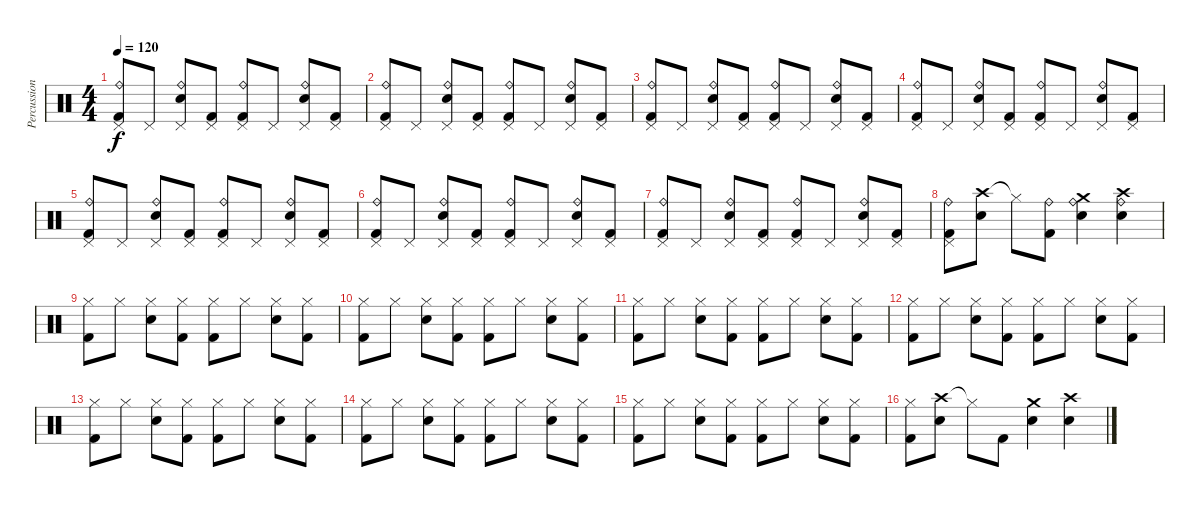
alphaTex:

\track ("Percussion" "Percussion") {instrument percussion}
\staff {score}
\articulation defaults
\ts (4 4)
\tempo 120
\clef neutral
\ks c
("Pedal Hi-Hat (hit)" "Ride (bell)" "Kick (hit) 2").8{dy f} "Pedal Hi-Hat (hit)".8 ("Pedal Hi-Hat (hit)" "Ride (bell)" "Electric Snare (hit)").8 ("Pedal Hi-Hat (hit)" "Kick (hit) 2").8 ("Pedal Hi-Hat (hit)" "Ride (bell)" "Kick (hit) 2").8 "Pedal Hi-Hat (hit)".8 ("Pedal Hi-Hat (hit)" "Ride (bell)" "Electric Snare (hit)").8 ("Pedal Hi-Hat (hit)" "Kick (hit) 2").8 |
("Pedal Hi-Hat (hit)" "Ride (bell)" "Kick (hit) 2").8 "Pedal Hi-Hat (hit)".8 ("Pedal Hi-Hat (hit)" "Ride (bell)" "Electric Snare (hit)").8 ("Pedal Hi-Hat (hit)" "Kick (hit) 2").8 ("Pedal Hi-Hat (hit)" "Ride (bell)" "Kick (hit) 2").8 "Pedal Hi-Hat (hit)".8 ("Pedal Hi-Hat (hit)" "Ride (bell)" "Electric Snare (hit)").8 ("Pedal Hi-Hat (hit)" "Kick (hit) 2").8 |
("Pedal Hi-Hat (hit)" "Ride (bell)" "Kick (hit) 2").8 "Pedal Hi-Hat (hit)".8 ("Pedal Hi-Hat (hit)" "Ride (bell)" "Electric Snare (hit)").8 ("Pedal Hi-Hat (hit)" "Kick (hit) 2").8 ("Pedal Hi-Hat (hit)" "Ride (bell)" "Kick (hit) 2").8 "Pedal Hi-Hat (hit)".8 ("Pedal Hi-Hat (hit)" "Ride (bell)" "Electric Snare (hit)").8 ("Pedal Hi-Hat (hit)" "Kick (hit) 2").8 |
("Pedal Hi-Hat (hit)" "Ride (bell)" "Kick (hit) 2").8 "Pedal Hi-Hat (hit)".8 ("Pedal Hi-Hat (hit)" "Ride (bell)" "Electric Snare (hit)").8 ("Pedal Hi-Hat (hit)" "Kick (hit) 2").8 ("Pedal Hi-Hat (hit)" "Ride (bell)" "Kick (hit) 2").8 "Pedal Hi-Hat (hit)".8 ("Pedal Hi-Hat (hit)" "Ride (bell)" "Electric Snare (hit)").8 ("Pedal Hi-Hat (hit)" "Kick (hit) 2").8 |
("Pedal Hi-Hat (hit)" "Ride (bell)" "Kick (hit) 2").8 "Pedal Hi-Hat (hit)".8 ("Pedal Hi-Hat (hit)" "Ride (bell)" "Electric Snare (hit)").8 ("Pedal Hi-Hat (hit)" "Kick (hit) 2").8 ("Pedal Hi-Hat (hit)" "Ride (bell)" "Kick (hit) 2").8 "Pedal Hi-Hat (hit)".8 ("Pedal Hi-Hat (hit)" "Ride (bell)" "Electric Snare (hit)").8 ("Pedal Hi-Hat (hit)" "Kick (hit) 2").8 |
("Pedal Hi-Hat (hit)" "Ride (bell)" "Kick (hit) 2").8 "Pedal Hi-Hat (hit)".8 ("Pedal Hi-Hat (hit)" "Ride (bell)" "Electric Snare (hit)").8 ("Pedal Hi-Hat (hit)" "Kick (hit) 2").8 ("Pedal Hi-Hat (hit)" "Ride (bell)" "Kick (hit) 2").8 "Pedal Hi-Hat (hit)".8 ("Pedal Hi-Hat (hit)" "Ride (bell)" "Electric Snare (hit)").8 ("Pedal Hi-Hat (hit)" "Kick (hit) 2").8 |
("Pedal Hi-Hat (hit)" "Ride (bell)" "Kick (hit) 2").8 "Pedal Hi-Hat (hit)".8 ("Pedal Hi-Hat (hit)" "Ride (bell)" "Electric Snare (hit)").8 ("Pedal Hi-Hat (hit)" "Kick (hit) 2").8 ("Pedal Hi-Hat (hit)" "Ride (bell)" "Kick (hit) 2").8 "Pedal Hi-Hat (hit)".8 ("Pedal Hi-Hat (hit)" "Ride (bell)" "Electric Snare (hit)").8 ("Pedal Hi-Hat (hit)" "Kick (hit) 2").8 |
("Pedal Hi-Hat (hit)" "Ride (bell)" "Kick (hit) 2").8 ("Crash high (hit)" "Electric Snare (hit)").8 "Hi-Hat (closed)"{t}.8 ("Ride (bell)" "Kick (hit) 2").8 ("Ride (bell)" "Crash medium (hit)" "Electric Snare (hit)").4 ("Ride (bell)" "Crash high (hit)" "Electric Snare (hit)").4 |
("Hi-Hat (closed)" "Kick (hit) 2").8 "Hi-Hat (closed)".8 ("Hi-Hat (closed)" "Electric Snare (hit)").8 ("Hi-Hat (closed)" "Kick (hit) 2").8 ("Hi-Hat (closed)" "Kick (hit) 2").8 "Hi-Hat (closed)".8 ("Hi-Hat (closed)" "Electric Snare (hit)").8 ("Hi-Hat (closed)" "Kick (hit) 2").8 |
("Hi-Hat (closed)" "Kick (hit) 2").8 "Hi-Hat (closed)".8 ("Hi-Hat (closed)" "Electric Snare (hit)").8 ("Hi-Hat (closed)" "Kick (hit) 2").8 ("Hi-Hat (closed)" "Kick (hit) 2").8 "Hi-Hat (closed)".8 ("Hi-Hat (closed)" "Electric Snare (hit)").8 ("Hi-Hat (closed)" "Kick (hit) 2").8 |
("Hi-Hat (closed)" "Kick (hit) 2").8 "Hi-Hat (closed)".8 ("Hi-Hat (closed)" "Electric Snare (hit)").8 ("Hi-Hat (closed)" "Kick (hit) 2").8 ("Hi-Hat (closed)" "Kick (hit) 2").8 "Hi-Hat (closed)".8 ("Hi-Hat (closed)" "Electric Snare (hit)").8 ("Hi-Hat (closed)" "Kick (hit) 2").8 |
("Hi-Hat (closed)" "Kick (hit) 2").8 "Hi-Hat (closed)".8 ("Hi-Hat (closed)" "Electric Snare (hit)").8 ("Hi-Hat (closed)" "Kick (hit) 2").8 ("Hi-Hat (closed)" "Kick (hit) 2").8 "Hi-Hat (closed)".8 ("Hi-Hat (closed)" "Electric Snare (hit)").8 ("Hi-Hat (closed)" "Kick (hit) 2").8 |
("Hi-Hat (closed)" "Kick (hit) 2").8 "Hi-Hat (closed)".8 ("Hi-Hat (closed)" "Electric Snare (hit)").8 ("Hi-Hat (closed)" "Kick (hit) 2").8 ("Hi-Hat (closed)" "Kick (hit) 2").8 "Hi-Hat (closed)".8 ("Hi-Hat (closed)" "Electric Snare (hit)").8 ("Hi-Hat (closed)" "Kick (hit) 2").8 |
("Hi-Hat (closed)" "Kick (hit) 2").8 "Hi-Hat (closed)".8 ("Hi-Hat (closed)" "Electric Snare (hit)").8 ("Hi-Hat (closed)" "Kick (hit) 2").8 ("Hi-Hat (closed)" "Kick (hit) 2").8 "Hi-Hat (closed)".8 ("Hi-Hat (closed)" "Electric Snare (hit)").8 ("Hi-Hat (closed)" "Kick (hit) 2").8 |
("Hi-Hat (closed)" "Kick (hit) 2").8 "Hi-Hat (closed)".8 ("Hi-Hat (closed)" "Electric Snare (hit)").8 ("Hi-Hat (closed)" "Kick (hit) 2").8 ("Hi-Hat (closed)" "Kick (hit) 2").8 "Hi-Hat (closed)".8 ("Hi-Hat (closed)" "Electric Snare (hit)").8 ("Hi-Hat (closed)" "Kick (hit) 2").8 |
("Hi-Hat (closed)" "Kick (hit) 2").8 ("Crash high (hit)" "Electric Snare (hit)").8 "Hi-Hat (closed)"{t}.8 "Kick (hit) 2".8 ("Crash medium (hit)" "Electric Snare (hit)").4 ("Crash high (hit)" "Electric Snare (hit)").4
